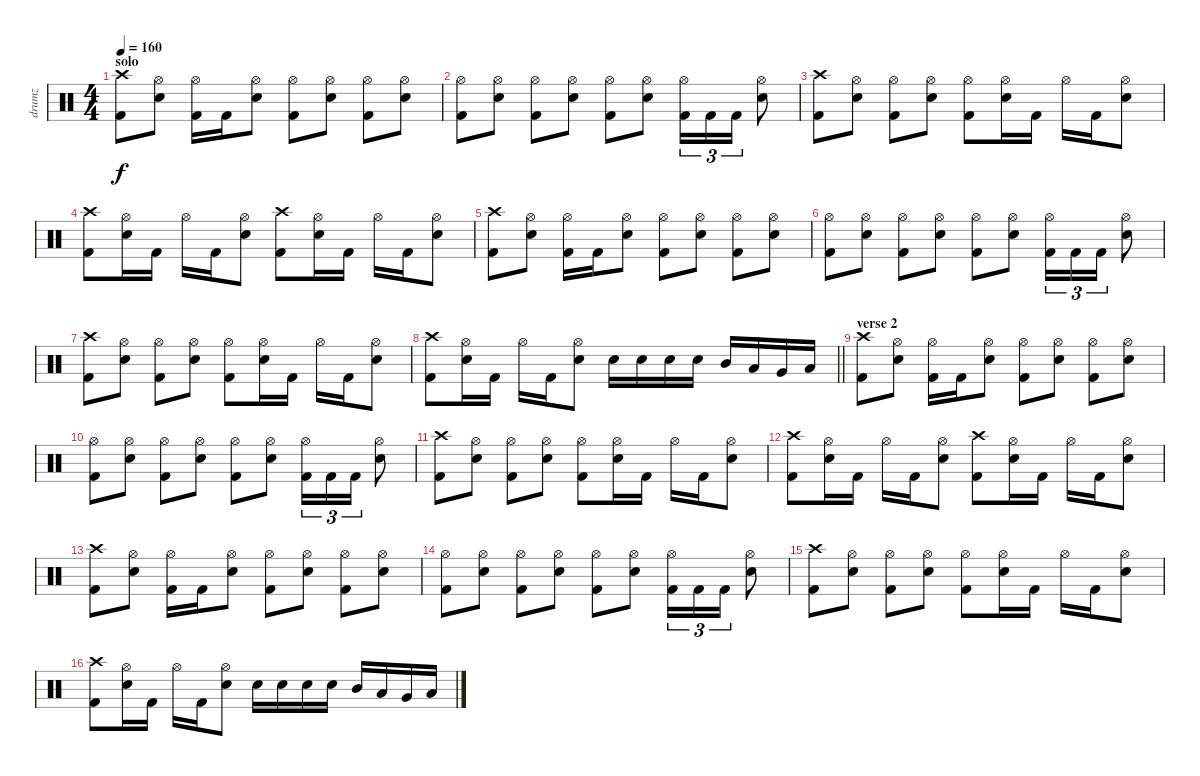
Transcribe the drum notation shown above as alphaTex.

\track ("drumz" "drumz") {instrument percussion}
\staff {score}
\articulation defaults
\ts (4 4)
\section ("" "solo")
\tempo 160
\clef neutral
\ks c
("Crash high (hit)" "Kick (hit) 2").8{dy f} ("Hi-Hat (open)" "Electric Snare (hit)").8 ("Hi-Hat (open)" "Kick (hit) 2").16 "Kick (hit) 2".16 ("Hi-Hat (open)" "Electric Snare (hit)").8 ("Hi-Hat (open)" "Kick (hit) 2").8 ("Hi-Hat (open)" "Electric Snare (hit)").8 ("Hi-Hat (open)" "Kick (hit) 2").8 ("Hi-Hat (open)" "Electric Snare (hit)").8 |
("Hi-Hat (open)" "Kick (hit) 2").8 ("Hi-Hat (open)" "Electric Snare (hit)").8 ("Hi-Hat (open)" "Kick (hit) 2").8 ("Hi-Hat (open)" "Electric Snare (hit)").8 ("Hi-Hat (open)" "Kick (hit) 2").8 ("Hi-Hat (open)" "Electric Snare (hit)").8 ("Hi-Hat (open)" "Kick (hit) 2").16{tu (3 2)} "Kick (hit) 2".16{tu (3 2)} "Kick (hit) 2".16{tu (3 2)} ("Hi-Hat (open)" "Electric Snare (hit)").8 |
("Crash high (hit)" "Kick (hit) 2").8 ("Hi-Hat (open)" "Electric Snare (hit)").8 ("Hi-Hat (open)" "Kick (hit) 2").8 ("Hi-Hat (open)" "Electric Snare (hit)").8 ("Hi-Hat (open)" "Kick (hit) 2").8 ("Hi-Hat (open)" "Electric Snare (hit)").16 "Kick (hit) 2".16 "Hi-Hat (open)".16 "Kick (hit) 2".16 ("Hi-Hat (open)" "Electric Snare (hit)").8 |
("Crash high (hit)" "Kick (hit) 2").8 ("Hi-Hat (open)" "Electric Snare (hit)").16 "Kick (hit) 2".16 "Hi-Hat (open)".16 "Kick (hit) 2".16 ("Hi-Hat (open)" "Electric Snare (hit)").8 ("Crash high (hit)" "Kick (hit) 2").8 ("Hi-Hat (open)" "Electric Snare (hit)").16 "Kick (hit) 2".16 "Hi-Hat (open)".16 "Kick (hit) 2".16 ("Hi-Hat (open)" "Electric Snare (hit)").8 |
("Crash high (hit)" "Kick (hit) 2").8 ("Hi-Hat (open)" "Electric Snare (hit)").8 ("Hi-Hat (open)" "Kick (hit) 2").16 "Kick (hit) 2".16 ("Hi-Hat (open)" "Electric Snare (hit)").8 ("Hi-Hat (open)" "Kick (hit) 2").8 ("Hi-Hat (open)" "Electric Snare (hit)").8 ("Hi-Hat (open)" "Kick (hit) 2").8 ("Hi-Hat (open)" "Electric Snare (hit)").8 |
("Hi-Hat (open)" "Kick (hit) 2").8 ("Hi-Hat (open)" "Electric Snare (hit)").8 ("Hi-Hat (open)" "Kick (hit) 2").8 ("Hi-Hat (open)" "Electric Snare (hit)").8 ("Hi-Hat (open)" "Kick (hit) 2").8 ("Hi-Hat (open)" "Electric Snare (hit)").8 ("Hi-Hat (open)" "Kick (hit) 2").16{tu (3 2)} "Kick (hit) 2".16{tu (3 2)} "Kick (hit) 2".16{tu (3 2)} ("Hi-Hat (open)" "Electric Snare (hit)").8 |
("Crash high (hit)" "Kick (hit) 2").8 ("Hi-Hat (open)" "Electric Snare (hit)").8 ("Hi-Hat (open)" "Kick (hit) 2").8 ("Hi-Hat (open)" "Electric Snare (hit)").8 ("Hi-Hat (open)" "Kick (hit) 2").8 ("Hi-Hat (open)" "Electric Snare (hit)").16 "Kick (hit) 2".16 "Hi-Hat (open)".16 "Kick (hit) 2".16 ("Hi-Hat (open)" "Electric Snare (hit)").8 |
\barLineRight lightlight
("Crash high (hit)" "Kick (hit) 2").8 ("Hi-Hat (open)" "Electric Snare (hit)").16 "Kick (hit) 2".16 "Hi-Hat (open)".16 "Kick (hit) 2".16 ("Hi-Hat (open)" "Electric Snare (hit)").8 "Electric Snare (hit)".16 "Electric Snare (hit)".16 "Electric Snare (hit)".16 "Electric Snare (hit)".16 "Mid Tom (hit)".16 "Low Tom (hit)".16 "Very Low Tom (hit)".16 "Low Floor Tom (hit)".16 |
\section ("" "verse 2")
("Crash high (hit)" "Kick (hit) 2").8 ("Hi-Hat (open)" "Electric Snare (hit)").8 ("Hi-Hat (open)" "Kick (hit) 2").16 "Kick (hit) 2".16 ("Hi-Hat (open)" "Electric Snare (hit)").8 ("Hi-Hat (open)" "Kick (hit) 2").8 ("Hi-Hat (open)" "Electric Snare (hit)").8 ("Hi-Hat (open)" "Kick (hit) 2").8 ("Hi-Hat (open)" "Electric Snare (hit)").8 |
("Hi-Hat (open)" "Kick (hit) 2").8 ("Hi-Hat (open)" "Electric Snare (hit)").8 ("Hi-Hat (open)" "Kick (hit) 2").8 ("Hi-Hat (open)" "Electric Snare (hit)").8 ("Hi-Hat (open)" "Kick (hit) 2").8 ("Hi-Hat (open)" "Electric Snare (hit)").8 ("Hi-Hat (open)" "Kick (hit) 2").16{tu (3 2)} "Kick (hit) 2".16{tu (3 2)} "Kick (hit) 2".16{tu (3 2)} ("Hi-Hat (open)" "Electric Snare (hit)").8 |
("Crash high (hit)" "Kick (hit) 2").8 ("Hi-Hat (open)" "Electric Snare (hit)").8 ("Hi-Hat (open)" "Kick (hit) 2").8 ("Hi-Hat (open)" "Electric Snare (hit)").8 ("Hi-Hat (open)" "Kick (hit) 2").8 ("Hi-Hat (open)" "Electric Snare (hit)").16 "Kick (hit) 2".16 "Hi-Hat (open)".16 "Kick (hit) 2".16 ("Hi-Hat (open)" "Electric Snare (hit)").8 |
("Crash high (hit)" "Kick (hit) 2").8 ("Hi-Hat (open)" "Electric Snare (hit)").16 "Kick (hit) 2".16 "Hi-Hat (open)".16 "Kick (hit) 2".16 ("Hi-Hat (open)" "Electric Snare (hit)").8 ("Crash high (hit)" "Kick (hit) 2").8 ("Hi-Hat (open)" "Electric Snare (hit)").16 "Kick (hit) 2".16 "Hi-Hat (open)".16 "Kick (hit) 2".16 ("Hi-Hat (open)" "Electric Snare (hit)").8 |
("Crash high (hit)" "Kick (hit) 2").8 ("Hi-Hat (open)" "Electric Snare (hit)").8 ("Hi-Hat (open)" "Kick (hit) 2").16 "Kick (hit) 2".16 ("Hi-Hat (open)" "Electric Snare (hit)").8 ("Hi-Hat (open)" "Kick (hit) 2").8 ("Hi-Hat (open)" "Electric Snare (hit)").8 ("Hi-Hat (open)" "Kick (hit) 2").8 ("Hi-Hat (open)" "Electric Snare (hit)").8 |
("Hi-Hat (open)" "Kick (hit) 2").8 ("Hi-Hat (open)" "Electric Snare (hit)").8 ("Hi-Hat (open)" "Kick (hit) 2").8 ("Hi-Hat (open)" "Electric Snare (hit)").8 ("Hi-Hat (open)" "Kick (hit) 2").8 ("Hi-Hat (open)" "Electric Snare (hit)").8 ("Hi-Hat (open)" "Kick (hit) 2").16{tu (3 2)} "Kick (hit) 2".16{tu (3 2)} "Kick (hit) 2".16{tu (3 2)} ("Hi-Hat (open)" "Electric Snare (hit)").8 |
("Crash high (hit)" "Kick (hit) 2").8 ("Hi-Hat (open)" "Electric Snare (hit)").8 ("Hi-Hat (open)" "Kick (hit) 2").8 ("Hi-Hat (open)" "Electric Snare (hit)").8 ("Hi-Hat (open)" "Kick (hit) 2").8 ("Hi-Hat (open)" "Electric Snare (hit)").16 "Kick (hit) 2".16 "Hi-Hat (open)".16 "Kick (hit) 2".16 ("Hi-Hat (open)" "Electric Snare (hit)").8 |
("Crash high (hit)" "Kick (hit) 2").8 ("Hi-Hat (open)" "Electric Snare (hit)").16 "Kick (hit) 2".16 "Hi-Hat (open)".16 "Kick (hit) 2".16 ("Hi-Hat (open)" "Electric Snare (hit)").8 "Electric Snare (hit)".16 "Electric Snare (hit)".16 "Electric Snare (hit)".16 "Electric Snare (hit)".16 "Mid Tom (hit)".16 "Low Tom (hit)".16 "Very Low Tom (hit)".16 "Low Floor Tom (hit)".16
